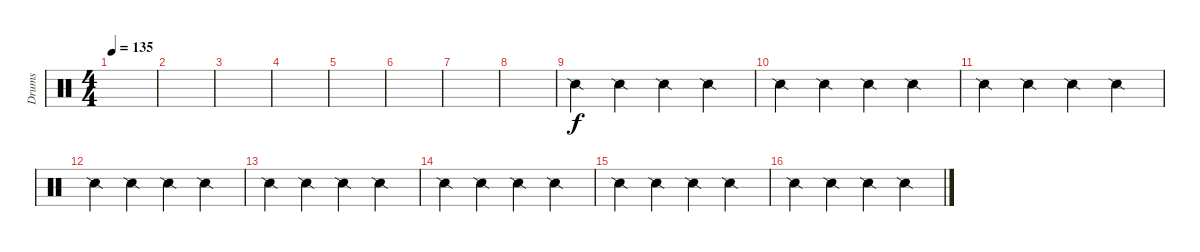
\track ("Drums" "Drums") {instrument percussion}
\staff {score}
\articulation defaults
\ts (4 4)
\tempo 135
\clef neutral
\ks c
|
|
|
|
|
|
|
|
"Snare (side stick) 2".4 "Snare (side stick) 2".4 "Snare (side stick) 2".4 "Snare (side stick) 2".4 |
"Snare (side stick) 2".4 "Snare (side stick) 2".4 "Snare (side stick) 2".4 "Snare (side stick) 2".4 |
"Snare (side stick) 2".4 "Snare (side stick) 2".4 "Snare (side stick) 2".4 "Snare (side stick) 2".4 |
"Snare (side stick) 2".4 "Snare (side stick) 2".4 "Snare (side stick) 2".4 "Snare (side stick) 2".4 |
"Snare (side stick) 2".4 "Snare (side stick) 2".4 "Snare (side stick) 2".4 "Snare (side stick) 2".4 |
"Snare (side stick) 2".4 "Snare (side stick) 2".4 "Snare (side stick) 2".4 "Snare (side stick) 2".4 |
"Snare (side stick) 2".4 "Snare (side stick) 2".4 "Snare (side stick) 2".4 "Snare (side stick) 2".4 |
"Snare (side stick) 2".4 "Snare (side stick) 2".4 "Snare (side stick) 2".4 "Snare (side stick) 2".4
